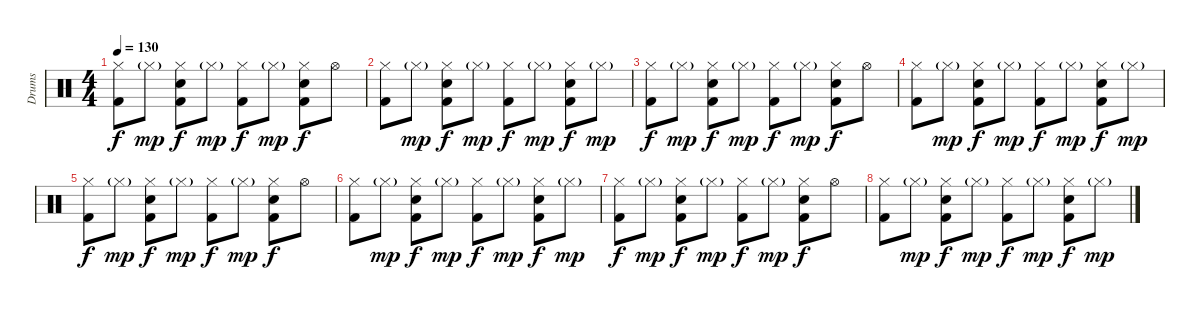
\track ("Drums" "Drums") {instrument percussion}
\staff {score}
\articulation defaults
\ts (4 4)
\tempo 130
\clef neutral
\ks c
("Hi-Hat (closed)" "Kick (hit) 2").8{dy f} "Hi-Hat (closed)"{g}.8{dy mp} ("Hi-Hat (closed)" "Snare (hit) 2" "Kick (hit) 2").8{dy f} "Hi-Hat (closed)"{g}.8{dy mp} ("Hi-Hat (closed)" "Kick (hit) 2").8{dy f} "Hi-Hat (closed)"{g}.8{dy mp} ("Hi-Hat (closed)" "Snare (hit) 2" "Kick (hit) 2").8{dy f} "Hi-Hat (open)".8 |
("Hi-Hat (closed)" "Kick (hit) 2").8 "Hi-Hat (closed)"{g}.8{dy mp} ("Hi-Hat (closed)" "Snare (hit) 2" "Kick (hit) 2").8{dy f} "Hi-Hat (closed)"{g}.8{dy mp} ("Hi-Hat (closed)" "Kick (hit) 2").8{dy f} "Hi-Hat (closed)"{g}.8{dy mp} ("Hi-Hat (closed)" "Snare (hit) 2" "Kick (hit) 2").8{dy f} "Hi-Hat (closed)"{g}.8{dy mp} |
("Hi-Hat (closed)" "Kick (hit) 2").8{dy f} "Hi-Hat (closed)"{g}.8{dy mp} ("Hi-Hat (closed)" "Snare (hit) 2" "Kick (hit) 2").8{dy f} "Hi-Hat (closed)"{g}.8{dy mp} ("Hi-Hat (closed)" "Kick (hit) 2").8{dy f} "Hi-Hat (closed)"{g}.8{dy mp} ("Hi-Hat (closed)" "Snare (hit) 2" "Kick (hit) 2").8{dy f} "Hi-Hat (open)".8 |
("Hi-Hat (closed)" "Kick (hit) 2").8 "Hi-Hat (closed)"{g}.8{dy mp} ("Hi-Hat (closed)" "Snare (hit) 2" "Kick (hit) 2").8{dy f} "Hi-Hat (closed)"{g}.8{dy mp} ("Hi-Hat (closed)" "Kick (hit) 2").8{dy f} "Hi-Hat (closed)"{g}.8{dy mp} ("Hi-Hat (closed)" "Snare (hit) 2" "Kick (hit) 2").8{dy f} "Hi-Hat (closed)"{g}.8{dy mp} |
("Hi-Hat (closed)" "Kick (hit) 2").8{dy f} "Hi-Hat (closed)"{g}.8{dy mp} ("Hi-Hat (closed)" "Snare (hit) 2" "Kick (hit) 2").8{dy f} "Hi-Hat (closed)"{g}.8{dy mp} ("Hi-Hat (closed)" "Kick (hit) 2").8{dy f} "Hi-Hat (closed)"{g}.8{dy mp} ("Hi-Hat (closed)" "Snare (hit) 2" "Kick (hit) 2").8{dy f} "Hi-Hat (open)".8 |
("Hi-Hat (closed)" "Kick (hit) 2").8 "Hi-Hat (closed)"{g}.8{dy mp} ("Hi-Hat (closed)" "Snare (hit) 2" "Kick (hit) 2").8{dy f} "Hi-Hat (closed)"{g}.8{dy mp} ("Hi-Hat (closed)" "Kick (hit) 2").8{dy f} "Hi-Hat (closed)"{g}.8{dy mp} ("Hi-Hat (closed)" "Snare (hit) 2" "Kick (hit) 2").8{dy f} "Hi-Hat (closed)"{g}.8{dy mp} |
("Hi-Hat (closed)" "Kick (hit) 2").8{dy f} "Hi-Hat (closed)"{g}.8{dy mp} ("Hi-Hat (closed)" "Snare (hit) 2" "Kick (hit) 2").8{dy f} "Hi-Hat (closed)"{g}.8{dy mp} ("Hi-Hat (closed)" "Kick (hit) 2").8{dy f} "Hi-Hat (closed)"{g}.8{dy mp} ("Hi-Hat (closed)" "Snare (hit) 2" "Kick (hit) 2").8{dy f} "Hi-Hat (open)".8 |
("Hi-Hat (closed)" "Kick (hit) 2").8{volume 0} "Hi-Hat (closed)"{g}.8{dy mp} ("Hi-Hat (closed)" "Snare (hit) 2" "Kick (hit) 2").8{dy f} "Hi-Hat (closed)"{g}.8{dy mp} ("Hi-Hat (closed)" "Kick (hit) 2").8{dy f} "Hi-Hat (closed)"{g}.8{dy mp} ("Hi-Hat (closed)" "Snare (hit) 2" "Kick (hit) 2").8{dy f} "Hi-Hat (closed)"{g}.8{dy mp}
